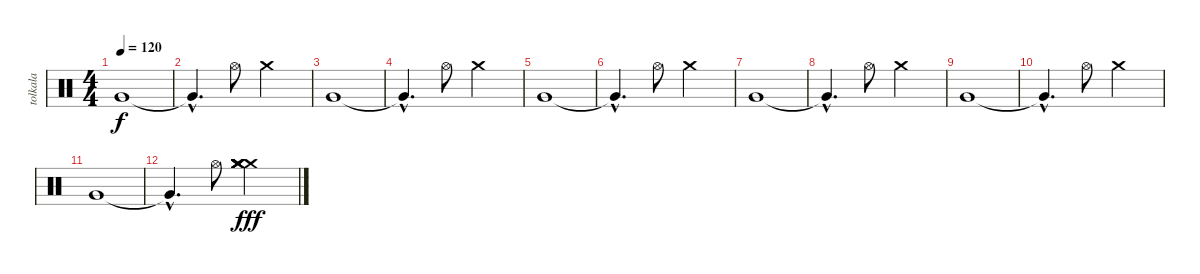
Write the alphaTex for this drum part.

\track ("tolkala" "tolkala") {instrument percussion}
\staff {score}
\articulation defaults
\ts (4 4)
\tempo 120
\clef neutral
\ks c "Very Low Tom (hit)".1{dy f}
|
"Very Low Tom (hit)"{hac t}.4{d} "Hi-Hat (open)".8 "Crash medium (hit)".2 |
"Very Low Tom (hit)".1 |
"Very Low Tom (hit)"{hac t}.4{d} "Hi-Hat (open)".8 "Crash medium (hit)".2 |
"Very Low Tom (hit)".1 |
"Very Low Tom (hit)"{hac t}.4{d} "Hi-Hat (open)".8 "Crash medium (hit)".2 |
"Very Low Tom (hit)".1 |
"Very Low Tom (hit)"{hac t}.4{d} "Hi-Hat (open)".8 "Crash medium (hit)".2 |
"Very Low Tom (hit)".1 |
"Very Low Tom (hit)"{hac t}.4{d} "Hi-Hat (open)".8 "Crash medium (hit)".2 |
"Very Low Tom (hit)".1 |
"Very Low Tom (hit)"{hac t}.4{d} "Hi-Hat (open)".8 ("Crash medium (hit)" "Crash medium (hit)" "Crash medium (hit)" "Crash medium (hit)" "Crash medium (hit)" "Crash medium (hit)").2{dy fff}
